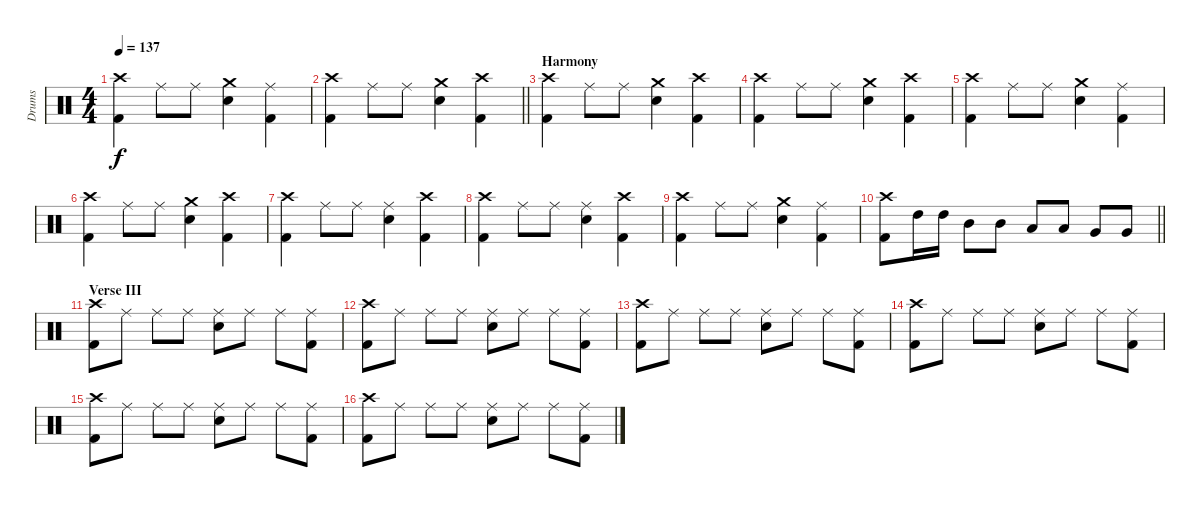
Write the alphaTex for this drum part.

\track ("Drums" "Drums") {instrument percussion}
\staff {score}
\articulation defaults
\ts (4 4)
\tempo 137
\clef neutral
\ks c
("Crash high (hit)" "Kick (hit) 2").4{dy f} "Ride (middle)".8 "Ride (middle)".8 ("Crash medium (hit)" "Electric Snare (hit)").4 ("Ride (middle)" "Kick (hit) 2").4 |
\barLineRight lightlight
("Crash high (hit)" "Kick (hit) 2").4 "Ride (middle)".8 "Ride (middle)".8 ("Crash medium (hit)" "Electric Snare (hit)").4 ("Crash high (hit)" "Kick (hit) 2").4 |
\section ("" "Harmony ")
("Crash high (hit)" "Kick (hit) 2").4 "Ride (middle)".8 "Ride (middle)".8 ("Crash medium (hit)" "Electric Snare (hit)").4 ("Crash high (hit)" "Kick (hit) 2").4 |
("Crash high (hit)" "Kick (hit) 2").4 "Ride (middle)".8 "Ride (middle)".8 ("Crash medium (hit)" "Electric Snare (hit)").4 ("Crash high (hit)" "Kick (hit) 2").4 |
("Crash high (hit)" "Kick (hit) 2").4 "Ride (middle)".8 "Ride (middle)".8 ("Crash medium (hit)" "Electric Snare (hit)").4 ("Ride (middle)" "Kick (hit) 2").4 |
("Crash high (hit)" "Kick (hit) 2").4 "Ride (middle)".8 "Ride (middle)".8 ("Crash medium (hit)" "Electric Snare (hit)").4 ("Crash high (hit)" "Kick (hit) 2").4 |
("Crash high (hit)" "Kick (hit) 2").4 "Ride (middle)".8 "Ride (middle)".8 ("Ride (middle)" "Electric Snare (hit)").4 ("Crash high (hit)" "Kick (hit) 2").4 |
("Crash high (hit)" "Kick (hit) 2").4 "Ride (middle)".8 "Ride (middle)".8 ("Ride (middle)" "Electric Snare (hit)").4 ("Crash high (hit)" "Kick (hit) 2").4 |
("Crash high (hit)" "Kick (hit) 2").4 "Ride (middle)".8 "Ride (middle)".8 ("Crash medium (hit)" "Electric Snare (hit)").4 ("Ride (middle)" "Kick (hit) 2").4 |
\barLineRight lightlight
("Crash high (hit)" "Kick (hit) 2").8 "High Tom (hit)".16 "High Tom (hit)".16 "Mid Tom (hit)".8 "Mid Tom (hit)".8 "Low Tom (hit)".8 "Low Tom (hit)".8 "Very Low Tom (hit)".8 "Very Low Tom (hit)".8 |
\section ("" "Verse III")
("Crash high (hit)" "Kick (hit) 2").8 "Ride (middle)".8 "Ride (middle)".8 "Ride (middle)".8 ("Ride (middle)" "Electric Snare (hit)").8 "Ride (middle)".8 "Ride (middle)".8 ("Ride (middle)" "Kick (hit) 2").8 |
("Crash high (hit)" "Kick (hit) 2").8 "Ride (middle)".8 "Ride (middle)".8 "Ride (middle)".8 ("Ride (middle)" "Electric Snare (hit)").8 "Ride (middle)".8 "Ride (middle)".8 ("Ride (middle)" "Kick (hit) 2").8 |
("Crash high (hit)" "Kick (hit) 2").8 "Ride (middle)".8 "Ride (middle)".8 "Ride (middle)".8 ("Ride (middle)" "Electric Snare (hit)").8 "Ride (middle)".8 "Ride (middle)".8 ("Ride (middle)" "Kick (hit) 2").8 |
("Crash high (hit)" "Kick (hit) 2").8 "Ride (middle)".8 "Ride (middle)".8 "Ride (middle)".8 ("Ride (middle)" "Electric Snare (hit)").8 "Ride (middle)".8 "Ride (middle)".8 ("Ride (middle)" "Kick (hit) 2").8 |
("Crash high (hit)" "Kick (hit) 2").8 "Ride (middle)".8 "Ride (middle)".8 "Ride (middle)".8 ("Ride (middle)" "Electric Snare (hit)").8 "Ride (middle)".8 "Ride (middle)".8 ("Ride (middle)" "Kick (hit) 2").8 |
("Crash high (hit)" "Kick (hit) 2").8 "Ride (middle)".8 "Ride (middle)".8 "Ride (middle)".8 ("Ride (middle)" "Electric Snare (hit)").8 "Ride (middle)".8 "Ride (middle)".8 ("Ride (middle)" "Kick (hit) 2").8
